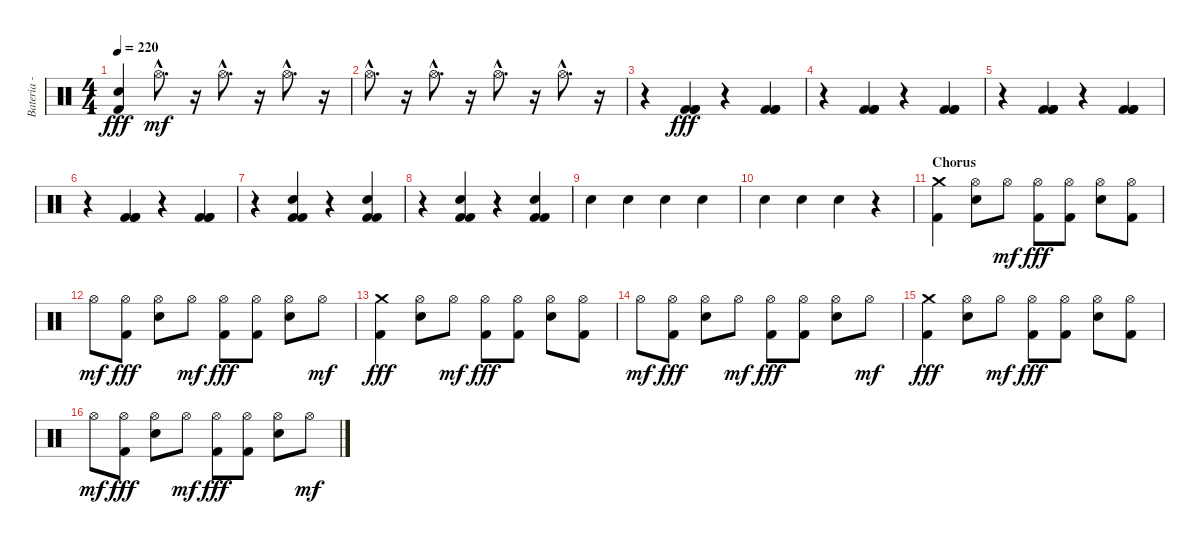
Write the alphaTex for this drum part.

\track ("Bateria - Larzon" "Bateria - ") {instrument percussion}
\staff {score}
\articulation defaults
\ts (4 4)
\tempo 220
\clef neutral
\ks c
("Snare (hit) 2" "Kick (hit) 2").4{dy fff} "Hi-Hat (open)"{hac}.8{d dy mf} r.16 "Hi-Hat (open)"{hac}.8{d} r.16 "Hi-Hat (open)"{hac}.8{d} r.16 |
"Hi-Hat (open)"{hac}.8{d} r.16 "Hi-Hat (open)"{hac}.8{d} r.16 "Hi-Hat (open)"{hac}.8{d} r.16 "Hi-Hat (open)"{hac}.8{d} r.16 |
r.4{volume 16} ("Kick (hit) 2" "Kick (hit) 2" "Kick (hit) 2").4{dy fff} r.4 ("Kick (hit) 2" "Kick (hit) 2" "Kick (hit) 2").4 |
r.4 ("Kick (hit) 2" "Kick (hit) 2" "Kick (hit) 2").4 r.4 ("Kick (hit) 2" "Kick (hit) 2" "Kick (hit) 2").4 |
r.4 ("Kick (hit) 2" "Kick (hit) 2" "Kick (hit) 2").4 r.4 ("Kick (hit) 2" "Kick (hit) 2" "Kick (hit) 2").4 |
r.4 ("Kick (hit) 2" "Kick (hit) 2" "Kick (hit) 2").4 r.4 ("Kick (hit) 2" "Kick (hit) 2" "Kick (hit) 2").4 |
r.4 ("Electric Snare (hit)" "Kick (hit) 2" "Kick (hit) 2").4 r.4 ("Electric Snare (hit)" "Kick (hit) 2" "Kick (hit) 2").4 |
r.4 ("Electric Snare (hit)" "Kick (hit) 2" "Kick (hit) 2").4 r.4 ("Electric Snare (hit)" "Kick (hit) 2" "Kick (hit) 2").4 |
"Electric Snare (hit)".4 "Electric Snare (hit)".4 "Electric Snare (hit)".4 "Electric Snare (hit)".4 |
"Electric Snare (hit)".4 "Electric Snare (hit)".4 "Electric Snare (hit)".4 r.4 |
\section ("" "Chorus")
("Crash medium (hit)" "Kick (hit) 2").4 ("Hi-Hat (open)" "Electric Snare (hit)").8 "Hi-Hat (open)".8{dy mf} ("Hi-Hat (open)" "Kick (hit) 2").8{dy fff} ("Hi-Hat (open)" "Kick (hit) 2").8 ("Hi-Hat (open)" "Electric Snare (hit)").8 ("Hi-Hat (open)" "Kick (hit) 2").8 |
"Hi-Hat (open)".8{dy mf} ("Hi-Hat (open)" "Kick (hit) 2").8{dy fff} ("Hi-Hat (open)" "Electric Snare (hit)").8 "Hi-Hat (open)".8{dy mf} ("Hi-Hat (open)" "Kick (hit) 2").8{dy fff} ("Hi-Hat (open)" "Kick (hit) 2").8 ("Hi-Hat (open)" "Electric Snare (hit)").8 "Hi-Hat (open)".8{dy mf} |
("Crash medium (hit)" "Kick (hit) 2").4{dy fff} ("Hi-Hat (open)" "Electric Snare (hit)").8 "Hi-Hat (open)".8{dy mf} ("Hi-Hat (open)" "Kick (hit) 2").8{dy fff} ("Hi-Hat (open)" "Kick (hit) 2").8 ("Hi-Hat (open)" "Electric Snare (hit)").8 ("Hi-Hat (open)" "Kick (hit) 2").8 |
"Hi-Hat (open)".8{dy mf} ("Hi-Hat (open)" "Kick (hit) 2").8{dy fff} ("Hi-Hat (open)" "Electric Snare (hit)").8 "Hi-Hat (open)".8{dy mf} ("Hi-Hat (open)" "Kick (hit) 2").8{dy fff} ("Hi-Hat (open)" "Kick (hit) 2").8 ("Hi-Hat (open)" "Electric Snare (hit)").8 "Hi-Hat (open)".8{dy mf} |
("Crash medium (hit)" "Kick (hit) 2").4{dy fff} ("Hi-Hat (open)" "Electric Snare (hit)").8 "Hi-Hat (open)".8{dy mf} ("Hi-Hat (open)" "Kick (hit) 2").8{dy fff} ("Hi-Hat (open)" "Kick (hit) 2").8 ("Hi-Hat (open)" "Electric Snare (hit)").8 ("Hi-Hat (open)" "Kick (hit) 2").8 |
"Hi-Hat (open)".8{dy mf} ("Hi-Hat (open)" "Kick (hit) 2").8{dy fff} ("Hi-Hat (open)" "Electric Snare (hit)").8 "Hi-Hat (open)".8{dy mf} ("Hi-Hat (open)" "Kick (hit) 2").8{dy fff} ("Hi-Hat (open)" "Kick (hit) 2").8 ("Hi-Hat (open)" "Electric Snare (hit)").8 "Hi-Hat (open)".8{dy mf}
